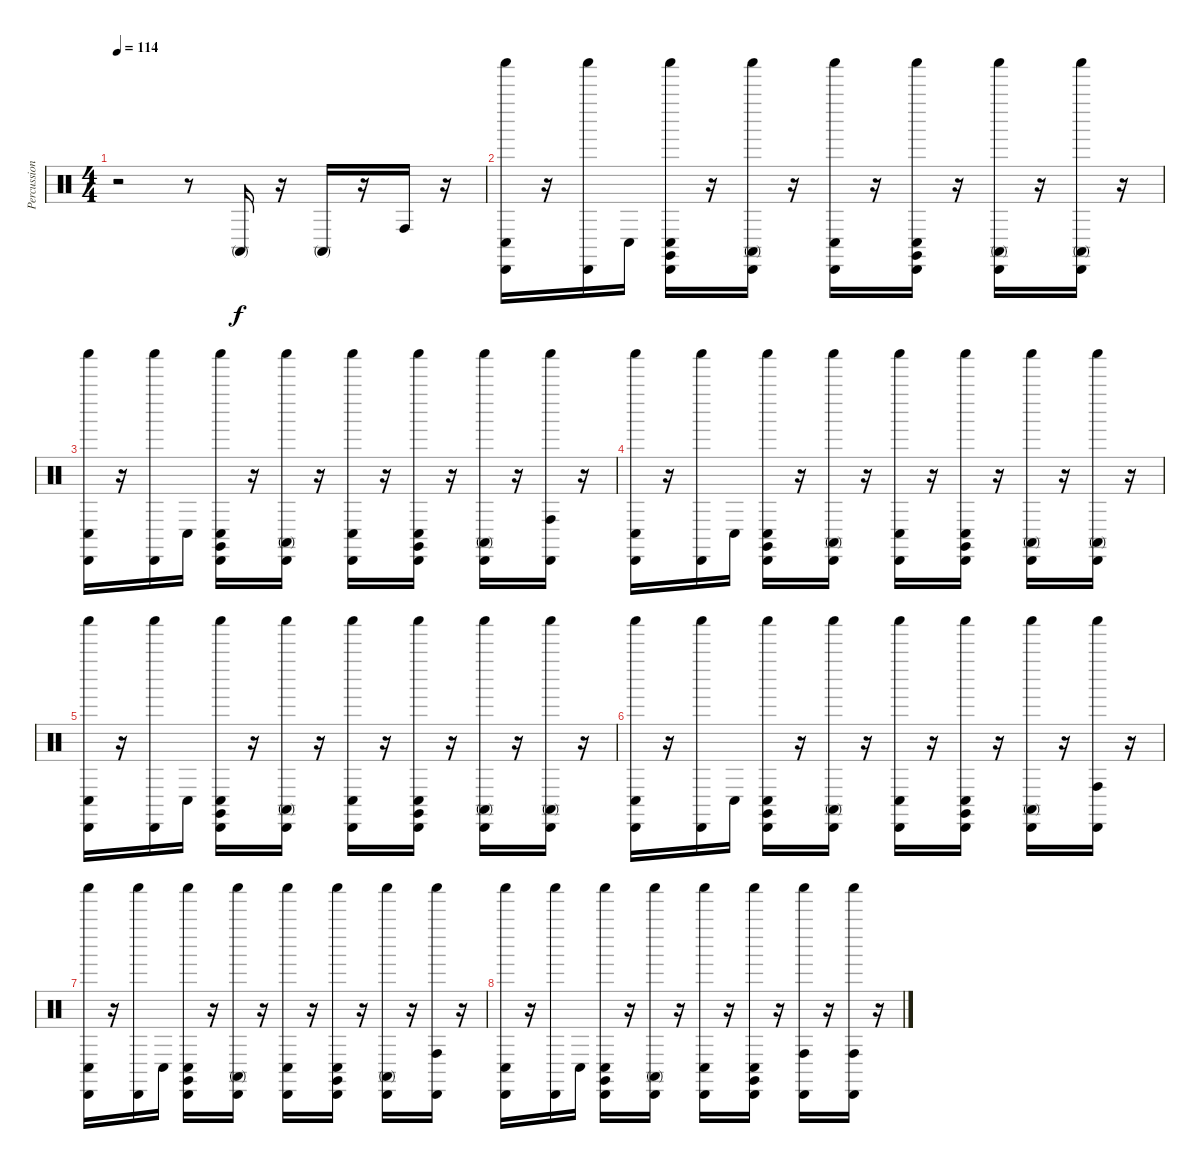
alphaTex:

\track ("Percussion (Std Set)" "Percussion") {instrument percussion}
\staff {score}
\articulation defaults
\ts (4 4)
\tempo 114
\clef neutral
\ks c
r.2{dy f} r.8 "Conga high (mute)".16 r.16 "Conga high (mute)".16 r.16 "Conga high (hit)".16 r.16 |
("Conga low (hit)" "Cabasa (hit)" "Shaker (hit)").16 r.16 ("Cabasa (hit)" "Shaker (hit)").16 "Conga low (hit)".16 ("Claves (hit)" "Cabasa (hit)" "Conga low (hit)" "Shaker (hit)").16 r.16 ("Shaker (hit)" "Cabasa (hit)" "Conga high (mute)").16 r.16 ("Conga low (hit)" "Shaker (hit)" "Cabasa (hit)").16 r.16 ("Cabasa (hit)" "Conga low (hit)" "Claves (hit)" "Shaker (hit)").16 r.16 ("Shaker (hit)" "Conga high (mute)" "Cabasa (hit)").16 r.16 ("Shaker (hit)" "Conga high (mute)" "Cabasa (hit)").16 r.16 |
("Conga low (hit)" "Cabasa (hit)" "Shaker (hit)").16 r.16 ("Cabasa (hit)" "Shaker (hit)").16 "Conga low (hit)".16 ("Claves (hit)" "Shaker (hit)" "Conga low (hit)" "Cabasa (hit)").16 r.16 ("Cabasa (hit)" "Shaker (hit)" "Conga high (mute)").16 r.16 ("Conga low (hit)" "Cabasa (hit)" "Shaker (hit)").16 r.16 ("Shaker (hit)" "Cabasa (hit)" "Conga low (hit)" "Claves (hit)").16 r.16 ("Cabasa (hit)" "Conga high (mute)" "Shaker (hit)").16 r.16 ("Cabasa (hit)" "Conga high (hit)" "Shaker (hit)").16 r.16 |
("Shaker (hit)" "Cabasa (hit)" "Conga low (hit)").16 r.16 ("Shaker (hit)" "Cabasa (hit)").16 "Conga low (hit)".16 ("Cabasa (hit)" "Conga low (hit)" "Claves (hit)" "Shaker (hit)").16 r.16 ("Shaker (hit)" "Conga high (mute)" "Cabasa (hit)").16 r.16 ("Shaker (hit)" "Cabasa (hit)" "Conga low (hit)").16 r.16 ("Claves (hit)" "Conga low (hit)" "Cabasa (hit)" "Shaker (hit)").16 r.16 ("Shaker (hit)" "Cabasa (hit)" "Conga high (mute)").16 r.16 ("Cabasa (hit)" "Shaker (hit)" "Conga high (mute)").16 r.16 |
("Conga low (hit)" "Cabasa (hit)" "Shaker (hit)").16 r.16 ("Cabasa (hit)" "Shaker (hit)").16 "Conga low (hit)".16 ("Shaker (hit)" "Cabasa (hit)" "Claves (hit)" "Conga low (hit)").16 r.16 ("Shaker (hit)" "Cabasa (hit)" "Conga high (mute)").16 r.16 ("Conga low (hit)" "Cabasa (hit)" "Shaker (hit)").16 r.16 ("Conga low (hit)" "Cabasa (hit)" "Claves (hit)" "Shaker (hit)").16 r.16 ("Shaker (hit)" "Cabasa (hit)" "Conga high (mute)").16 r.16 ("Cabasa (hit)" "Shaker (hit)" "Conga high (mute)").16 r.16 |
("Conga low (hit)" "Cabasa (hit)" "Shaker (hit)").16 r.16 ("Shaker (hit)" "Cabasa (hit)").16 "Conga low (hit)".16 ("Shaker (hit)" "Cabasa (hit)" "Claves (hit)" "Conga low (hit)").16 r.16 ("Conga high (mute)" "Cabasa (hit)" "Shaker (hit)").16 r.16 ("Conga low (hit)" "Shaker (hit)" "Cabasa (hit)").16 r.16 ("Conga low (hit)" "Cabasa (hit)" "Shaker (hit)" "Claves (hit)").16 r.16 ("Shaker (hit)" "Cabasa (hit)" "Conga high (mute)").16 r.16 ("Shaker (hit)" "Cabasa (hit)" "Conga high (hit)").16 r.16 |
("Cabasa (hit)" "Shaker (hit)" "Conga low (hit)").16 r.16 ("Shaker (hit)" "Cabasa (hit)").16 "Conga low (hit)".16 ("Conga low (hit)" "Cabasa (hit)" "Claves (hit)" "Shaker (hit)").16 r.16 ("Cabasa (hit)" "Conga high (mute)" "Shaker (hit)").16 r.16 ("Shaker (hit)" "Conga low (hit)" "Cabasa (hit)").16 r.16 ("Shaker (hit)" "Claves (hit)" "Conga low (hit)" "Cabasa (hit)").16 r.16 ("Conga high (mute)" "Cabasa (hit)" "Shaker (hit)").16 r.16 ("Shaker (hit)" "Cabasa (hit)" "Conga high (hit)").16 r.16 |
("Shaker (hit)" "Conga low (hit)" "Cabasa (hit)").16 r.16 ("Cabasa (hit)" "Shaker (hit)").16 "Conga low (hit)".16 ("Cabasa (hit)" "Shaker (hit)" "Conga low (hit)" "Claves (hit)").16 r.16 ("Conga high (mute)" "Shaker (hit)" "Cabasa (hit)").16 r.16 ("Conga low (hit)" "Cabasa (hit)" "Shaker (hit)").16 r.16 ("Cabasa (hit)" "Shaker (hit)" "Conga low (hit)" "Claves (hit)").16 r.16 ("Conga high (hit)" "Shaker (hit)" "Cabasa (hit)").16 r.16 ("Shaker (hit)" "Conga high (hit)" "Cabasa (hit)").16 r.16
